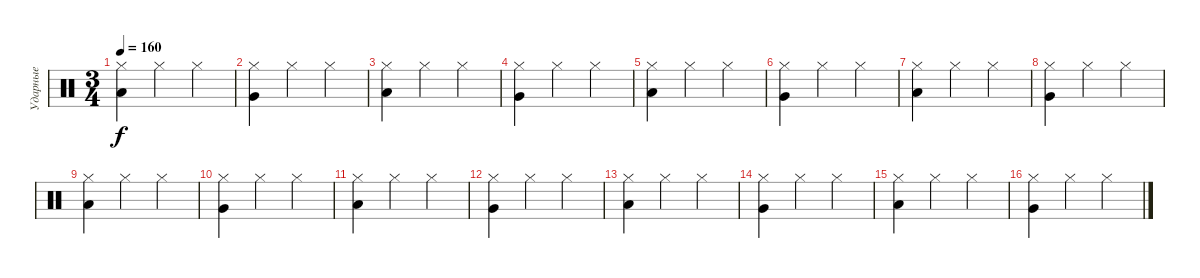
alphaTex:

\track ("Ударные" "Ударные") {instrument percussion}
\staff {score}
\articulation defaults
\ts (3 4)
\tempo 160
\clef neutral
\ks c
("Hi-Hat (closed)" "Low Floor Tom (hit)").4{dy f} "Hi-Hat (closed)".4 "Hi-Hat (closed)".4 |
("Hi-Hat (closed)" "Very Low Tom (hit)").4 "Hi-Hat (closed)".4 "Hi-Hat (closed)".4 |
("Hi-Hat (closed)" "Low Floor Tom (hit)").4 "Hi-Hat (closed)".4 "Hi-Hat (closed)".4 |
("Hi-Hat (closed)" "Very Low Tom (hit)").4 "Hi-Hat (closed)".4 "Hi-Hat (closed)".4 |
("Hi-Hat (closed)" "Low Floor Tom (hit)").4 "Hi-Hat (closed)".4 "Hi-Hat (closed)".4 |
("Hi-Hat (closed)" "Very Low Tom (hit)").4 "Hi-Hat (closed)".4 "Hi-Hat (closed)".4 |
("Hi-Hat (closed)" "Low Floor Tom (hit)").4 "Hi-Hat (closed)".4 "Hi-Hat (closed)".4 |
("Hi-Hat (closed)" "Very Low Tom (hit)").4 "Hi-Hat (closed)".4 "Hi-Hat (closed)".4 |
("Hi-Hat (closed)" "Low Floor Tom (hit)").4 "Hi-Hat (closed)".4 "Hi-Hat (closed)".4 |
("Hi-Hat (closed)" "Very Low Tom (hit)").4 "Hi-Hat (closed)".4 "Hi-Hat (closed)".4 |
("Hi-Hat (closed)" "Low Floor Tom (hit)").4 "Hi-Hat (closed)".4 "Hi-Hat (closed)".4 |
("Hi-Hat (closed)" "Very Low Tom (hit)").4 "Hi-Hat (closed)".4 "Hi-Hat (closed)".4 |
("Hi-Hat (closed)" "Low Floor Tom (hit)").4 "Hi-Hat (closed)".4 "Hi-Hat (closed)".4 |
("Hi-Hat (closed)" "Very Low Tom (hit)").4 "Hi-Hat (closed)".4 "Hi-Hat (closed)".4 |
("Hi-Hat (closed)" "Low Floor Tom (hit)").4 "Hi-Hat (closed)".4 "Hi-Hat (closed)".4 |
("Hi-Hat (closed)" "Very Low Tom (hit)").4 "Hi-Hat (closed)".4 "Hi-Hat (closed)".4
